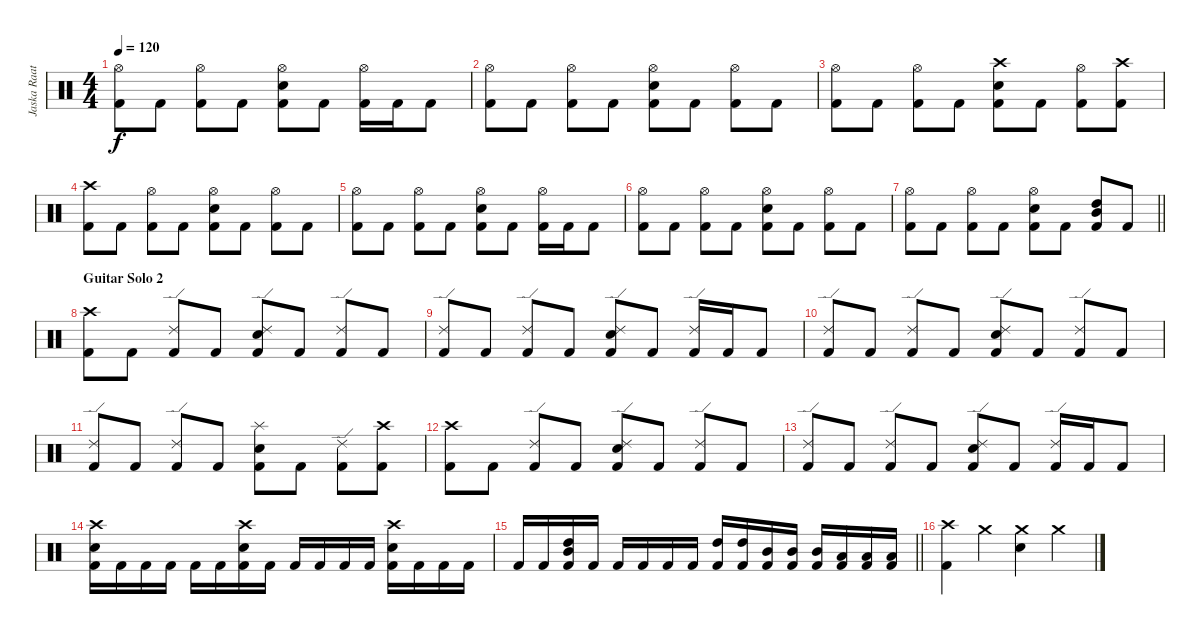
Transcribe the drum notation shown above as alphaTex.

\track ("Jaska Raatikainen" "Jaska Raat") {instrument percussion}
\staff {score}
\articulation defaults
\ts (4 4)
\tempo 120
\clef neutral
\ks c
("Hi-Hat (open)" "Kick (hit) 2").8{dy f} "Kick (hit) 2".8 ("Hi-Hat (open)" "Kick (hit) 2").8 "Kick (hit) 2".8 ("Hi-Hat (open)" "Snare (hit) 2" "Kick (hit) 2").8 "Kick (hit) 2".8 ("Hi-Hat (open)" "Kick (hit) 2").16 "Kick (hit) 2".16 "Kick (hit) 2".8 |
("Hi-Hat (open)" "Kick (hit) 2").8 "Kick (hit) 2".8 ("Hi-Hat (open)" "Kick (hit) 2").8 "Kick (hit) 2".8 ("Hi-Hat (open)" "Snare (hit) 2" "Kick (hit) 2").8 "Kick (hit) 2".8 ("Hi-Hat (open)" "Kick (hit) 2").8 "Kick (hit) 2".8 |
("Hi-Hat (open)" "Kick (hit) 2").8 "Kick (hit) 2".8 ("Hi-Hat (open)" "Kick (hit) 2").8 "Kick (hit) 2".8 ("Crash high (hit)" "Snare (hit) 2" "Kick (hit) 2").8 "Kick (hit) 2".8 ("Hi-Hat (open)" "Kick (hit) 2").8 ("Crash high (hit)" "Kick (hit) 2").8 |
("Crash high (hit)" "Kick (hit) 2").8 "Kick (hit) 2".8 ("Hi-Hat (open)" "Kick (hit) 2").8 "Kick (hit) 2".8 ("Hi-Hat (open)" "Snare (hit) 2" "Kick (hit) 2").8 "Kick (hit) 2".8 ("Hi-Hat (open)" "Kick (hit) 2").8 "Kick (hit) 2".8 |
("Hi-Hat (open)" "Kick (hit) 2").8 "Kick (hit) 2".8 ("Hi-Hat (open)" "Kick (hit) 2").8 "Kick (hit) 2".8 ("Hi-Hat (open)" "Snare (hit) 2" "Kick (hit) 2").8 "Kick (hit) 2".8 ("Hi-Hat (open)" "Kick (hit) 2").16 "Kick (hit) 2".16 "Kick (hit) 2".8 |
("Hi-Hat (open)" "Kick (hit) 2").8 "Kick (hit) 2".8 ("Hi-Hat (open)" "Kick (hit) 2").8 "Kick (hit) 2".8 ("Hi-Hat (open)" "Snare (hit) 2" "Kick (hit) 2").8 "Kick (hit) 2".8 ("Hi-Hat (open)" "Kick (hit) 2").8 "Kick (hit) 2".8 |
\barLineRight lightlight
("Hi-Hat (open)" "Kick (hit) 2").8 "Kick (hit) 2".8 ("Hi-Hat (open)" "Kick (hit) 2").8 "Kick (hit) 2".8 ("Hi-Hat (open)" "Snare (hit) 2" "Kick (hit) 2").8 "Kick (hit) 2".8 ("High Tom (hit)" "Mid Tom (hit)" "Kick (hit) 2").8 "Kick (hit) 2".8 |
\section ("" "Guitar Solo 2")
("Crash high (hit)" "Kick (hit) 2").8 "Kick (hit) 2".8 ("Ride (edge) 2" "Kick (hit) 2").8 "Kick (hit) 2".8 ("Ride (edge) 2" "Snare (hit) 2" "Kick (hit) 2").8 "Kick (hit) 2".8 ("Ride (edge) 2" "Kick (hit) 2").8 "Kick (hit) 2".8 |
("Ride (edge) 2" "Kick (hit) 2").8 "Kick (hit) 2".8 ("Ride (edge) 2" "Kick (hit) 2").8 "Kick (hit) 2".8 ("Ride (edge) 2" "Snare (hit) 2" "Kick (hit) 2").8 "Kick (hit) 2".8 ("Ride (edge) 2" "Kick (hit) 2").16 "Kick (hit) 2".16 "Kick (hit) 2".8 |
("Ride (edge) 2" "Kick (hit) 2").8 "Kick (hit) 2".8 ("Ride (edge) 2" "Kick (hit) 2").8 "Kick (hit) 2".8 ("Ride (edge) 2" "Snare (hit) 2" "Kick (hit) 2").8 "Kick (hit) 2".8 ("Ride (edge) 2" "Kick (hit) 2").8 "Kick (hit) 2".8 |
("Ride (edge) 2" "Kick (hit) 2").8 "Kick (hit) 2".8 ("Ride (edge) 2" "Kick (hit) 2").8 "Kick (hit) 2".8 ("Splash (hit)" "Snare (hit) 2" "Kick (hit) 2").8 "Kick (hit) 2".8 ("Ride (edge) 2" "Kick (hit) 2").8 ("Crash high (hit)" "Kick (hit) 2").8 |
("Crash high (hit)" "Kick (hit) 2").8 "Kick (hit) 2".8 ("Ride (edge) 2" "Kick (hit) 2").8 "Kick (hit) 2".8 ("Ride (edge) 2" "Snare (hit) 2" "Kick (hit) 2").8 "Kick (hit) 2".8 ("Ride (edge) 2" "Kick (hit) 2").8 "Kick (hit) 2".8 |
("Ride (edge) 2" "Kick (hit) 2").8 "Kick (hit) 2".8 ("Ride (edge) 2" "Kick (hit) 2").8 "Kick (hit) 2".8 ("Ride (edge) 2" "Snare (hit) 2" "Kick (hit) 2").8 "Kick (hit) 2".8 ("Ride (edge) 2" "Kick (hit) 2").16 "Kick (hit) 2".16 "Kick (hit) 2".8 |
("Crash high (hit)" "Snare (hit) 2" "Kick (hit) 2").16 "Kick (hit) 2".16 "Kick (hit) 2".16 "Kick (hit) 2".16 "Kick (hit) 2".16 "Kick (hit) 2".16 ("Crash high (hit)" "Snare (hit) 2" "Kick (hit) 2").16 "Kick (hit) 2".16 "Kick (hit) 2".16 "Kick (hit) 2".16 "Kick (hit) 2".16 "Kick (hit) 2".16 ("Crash high (hit)" "Snare (hit) 2" "Kick (hit) 2").16 "Kick (hit) 2".16 "Kick (hit) 2".16 "Kick (hit) 2".16 |
\barLineRight lightlight "Kick (hit) 2".16 "Kick (hit) 2".16
("High Tom (hit)" "Mid Tom (hit)" "Kick (hit) 2").16 "Kick (hit) 2".16 "Kick (hit) 2".16 "Kick (hit) 2".16 "Kick (hit) 2".16 "Kick (hit) 2".16 ("High Tom (hit)" "Kick (hit) 2").16 ("High Tom (hit)" "Kick (hit) 2").16 ("Mid Tom (hit)" "Kick (hit) 2").16 ("Mid Tom (hit)" "Kick (hit) 2").16 ("Mid Tom (hit)" "Kick (hit) 2").16 ("Low Tom (hit)" "Kick (hit) 2").16 ("Low Tom (hit)" "Kick (hit) 2").16 ("Low Tom (hit)" "Kick (hit) 2").16 |
("Crash high (hit)" "Kick (hit) 2").4 "Crash medium (hit)".4 ("Crash medium (hit)" "Snare (hit) 2").4 "Crash medium (hit)".4
